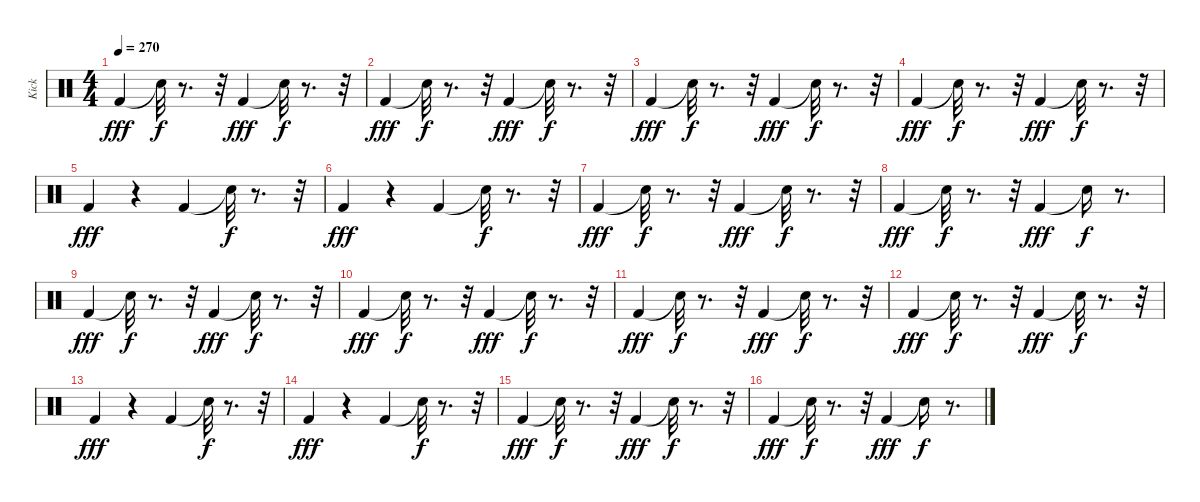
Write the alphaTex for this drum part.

\track ("Kick" "Kick") {instrument percussion}
\staff {score}
\articulation defaults
\ts (4 4)
\tempo 270
\clef neutral
\ks c "Kick (hit) 2".4{dy fff} "Snare (hit)"{t}.32{dy f}
r.8{d} r.32 "Kick (hit) 2".4{dy fff} "Snare (hit)"{t}.32{dy f} r.8{d} r.32 |
"Kick (hit) 2".4{dy fff} "Snare (hit)"{t}.32{dy f} r.8{d} r.32 "Kick (hit) 2".4{dy fff} "Snare (hit)"{t}.32{dy f} r.8{d} r.32 |
"Kick (hit) 2".4{dy fff} "Snare (hit)"{t}.32{dy f} r.8{d} r.32 "Kick (hit) 2".4{dy fff} "Snare (hit)"{t}.32{dy f} r.8{d} r.32 |
"Kick (hit) 2".4{dy fff} "Snare (hit)"{t}.32{dy f} r.8{d} r.32 "Kick (hit) 2".4{dy fff} "Snare (hit)"{t}.32{dy f} r.8{d} r.32 |
"Kick (hit) 2".4{dy fff} r.4 "Kick (hit) 2".4 "Snare (hit)"{t}.32{dy f} r.8{d} r.32 |
"Kick (hit) 2".4{dy fff} r.4 "Kick (hit) 2".4 "Snare (hit)"{t}.32{dy f} r.8{d} r.32 |
"Kick (hit) 2".4{dy fff} "Snare (hit)"{t}.32{dy f} r.8{d} r.32 "Kick (hit) 2".4{dy fff} "Snare (hit)"{t}.32{dy f} r.8{d} r.32 |
"Kick (hit) 2".4{dy fff} "Snare (hit)"{t}.32{dy f} r.8{d} r.32 "Kick (hit) 2".4{dy fff} "Snare (hit)"{t}.16{dy f} r.8{d} |
"Kick (hit) 2".4{dy fff} "Snare (hit)"{t}.32{dy f} r.8{d} r.32 "Kick (hit) 2".4{dy fff} "Snare (hit)"{t}.32{dy f} r.8{d} r.32 |
"Kick (hit) 2".4{dy fff} "Snare (hit)"{t}.32{dy f} r.8{d} r.32 "Kick (hit) 2".4{dy fff} "Snare (hit)"{t}.32{dy f} r.8{d} r.32 |
"Kick (hit) 2".4{dy fff} "Snare (hit)"{t}.32{dy f} r.8{d} r.32 "Kick (hit) 2".4{dy fff} "Snare (hit)"{t}.32{dy f} r.8{d} r.32 |
"Kick (hit) 2".4{dy fff} "Snare (hit)"{t}.32{dy f} r.8{d} r.32 "Kick (hit) 2".4{dy fff} "Snare (hit)"{t}.32{dy f} r.8{d} r.32 |
"Kick (hit) 2".4{dy fff} r.4 "Kick (hit) 2".4 "Snare (hit)"{t}.32{dy f} r.8{d} r.32 |
"Kick (hit) 2".4{dy fff} r.4 "Kick (hit) 2".4 "Snare (hit)"{t}.32{dy f} r.8{d} r.32 |
"Kick (hit) 2".4{dy fff} "Snare (hit)"{t}.32{dy f} r.8{d} r.32 "Kick (hit) 2".4{dy fff} "Snare (hit)"{t}.32{dy f} r.8{d} r.32 |
"Kick (hit) 2".4{dy fff} "Snare (hit)"{t}.32{dy f} r.8{d} r.32 "Kick (hit) 2".4{dy fff} "Snare (hit)"{t}.16{dy f} r.8{d}
